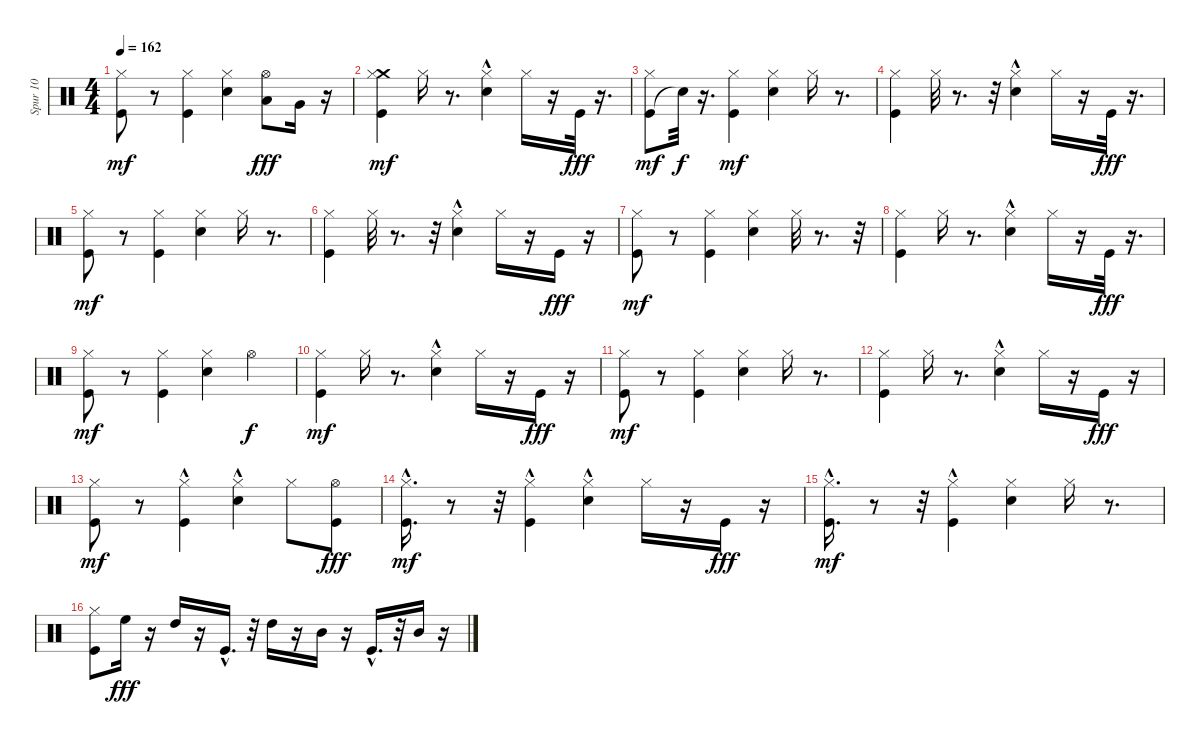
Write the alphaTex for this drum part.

\track ("Spur 10" "Spur 10") {instrument percussion}
\staff {score}
\articulation defaults
\ts (4 4)
\tempo 162
\clef neutral
\ks c
("Kick (hit)" "Hi-Hat (closed)").8{dy mf} r.8 ("Kick (hit)" "Hi-Hat (closed)").4 ("Snare (hit) 2" "Hi-Hat (closed)").4 ("Low Tom (hit)" "Hi-Hat (open)").8{dy fff} "Very Low Tom (hit)".16 r.16 |
("Kick (hit)" "Crash medium (hit)" "Hi-Hat (closed)").4{dy mf} "Hi-Hat (closed)".16 r.8{d} ("Snare (hit) 2"{hac} "Hi-Hat (closed)").4 "Hi-Hat (closed)".16 r.16 "Kick (hit)".32{dy fff} r.16{d} |
("Kick (hit)" "Hi-Hat (closed)").8{dy mf} "Snare (hit)"{t}.32{dy f} r.16{d} ("Kick (hit)" "Hi-Hat (closed)").4{dy mf} ("Snare (hit) 2" "Hi-Hat (closed)").4 "Hi-Hat (closed)".16 r.8{d} |
("Kick (hit)" "Hi-Hat (closed)").4 "Hi-Hat (closed)".32 r.8{d} r.32 ("Snare (hit) 2"{hac} "Hi-Hat (closed)").4 "Hi-Hat (closed)".16 r.16 "Kick (hit)".32{dy fff} r.16{d} |
("Kick (hit)" "Hi-Hat (closed)").8{dy mf} r.8 ("Kick (hit)" "Hi-Hat (closed)").4 ("Snare (hit) 2" "Hi-Hat (closed)").4 "Hi-Hat (closed)".16 r.8{d} |
("Kick (hit)" "Hi-Hat (closed)").4 "Hi-Hat (closed)".32 r.8{d} r.32 ("Snare (hit) 2"{hac} "Hi-Hat (closed)").4 "Hi-Hat (closed)".16 r.16 "Kick (hit)".16{dy fff} r.16 |
("Kick (hit)" "Hi-Hat (closed)").8{dy mf} r.8 ("Kick (hit)" "Hi-Hat (closed)").4 ("Snare (hit) 2" "Hi-Hat (closed)").4 "Hi-Hat (closed)".32 r.8{d} r.32 |
("Kick (hit)" "Hi-Hat (closed)").4 "Hi-Hat (closed)".16 r.8{d} ("Snare (hit) 2"{hac} "Hi-Hat (closed)").4 "Hi-Hat (closed)".16 r.16 "Kick (hit)".32{dy fff} r.16{d} |
("Kick (hit)" "Hi-Hat (closed)").8{dy mf} r.8 ("Kick (hit)" "Hi-Hat (closed)").4 ("Snare (hit) 2" "Hi-Hat (closed)").4 "Hi-Hat (open)".4{dy f} |
("Kick (hit)" "Hi-Hat (closed)").4{dy mf} "Hi-Hat (closed)".16 r.8{d} ("Snare (hit) 2"{hac} "Hi-Hat (closed)").4 "Hi-Hat (closed)".16 r.16 "Kick (hit)".16{dy fff} r.16 |
("Kick (hit)" "Hi-Hat (closed)").8{dy mf} r.8 ("Kick (hit)" "Hi-Hat (closed)").4 ("Snare (hit) 2" "Hi-Hat (closed)").4 "Hi-Hat (closed)".16 r.8{d} |
("Kick (hit)" "Hi-Hat (closed)").4 "Hi-Hat (closed)".16 r.8{d} ("Snare (hit) 2"{hac} "Hi-Hat (closed)").4 "Hi-Hat (closed)".16 r.16 "Kick (hit)".16{dy fff} r.16 |
("Kick (hit)" "Hi-Hat (closed)").8{dy mf} r.8 ("Kick (hit)"{hac} "Hi-Hat (closed)").4 ("Snare (hit) 2"{hac} "Hi-Hat (closed)").4 "Hi-Hat (closed)".8 ("Kick (hit)" "Hi-Hat (open)").8{dy fff} |
("Kick (hit)"{hac} "Hi-Hat (closed)").16{d dy mf} r.8 r.32 ("Kick (hit)"{hac} "Hi-Hat (closed)").4 ("Snare (hit) 2"{hac} "Hi-Hat (closed)").4 "Hi-Hat (closed)".16 r.16 "Kick (hit)".16{dy fff} r.16 |
("Kick (hit)"{hac} "Hi-Hat (closed)").16{d dy mf} r.8 r.32 ("Kick (hit)"{hac} "Hi-Hat (closed)").4 ("Snare (hit) 2" "Hi-Hat (closed)").4 "Hi-Hat (closed)".16 r.8{d} |
("Kick (hit)" "Hi-Hat (closed)").8 "High Floor Tom (hit)".16{dy fff} r.16 "High Tom (hit)".16 r.16 "Kick (hit)"{hac}.16{d} r.32 "High Tom (hit)".16 r.16 "Mid Tom (hit)".16 r.16 "Kick (hit)"{hac}.16{d} r.32 "Mid Tom (hit)".16 r.16
